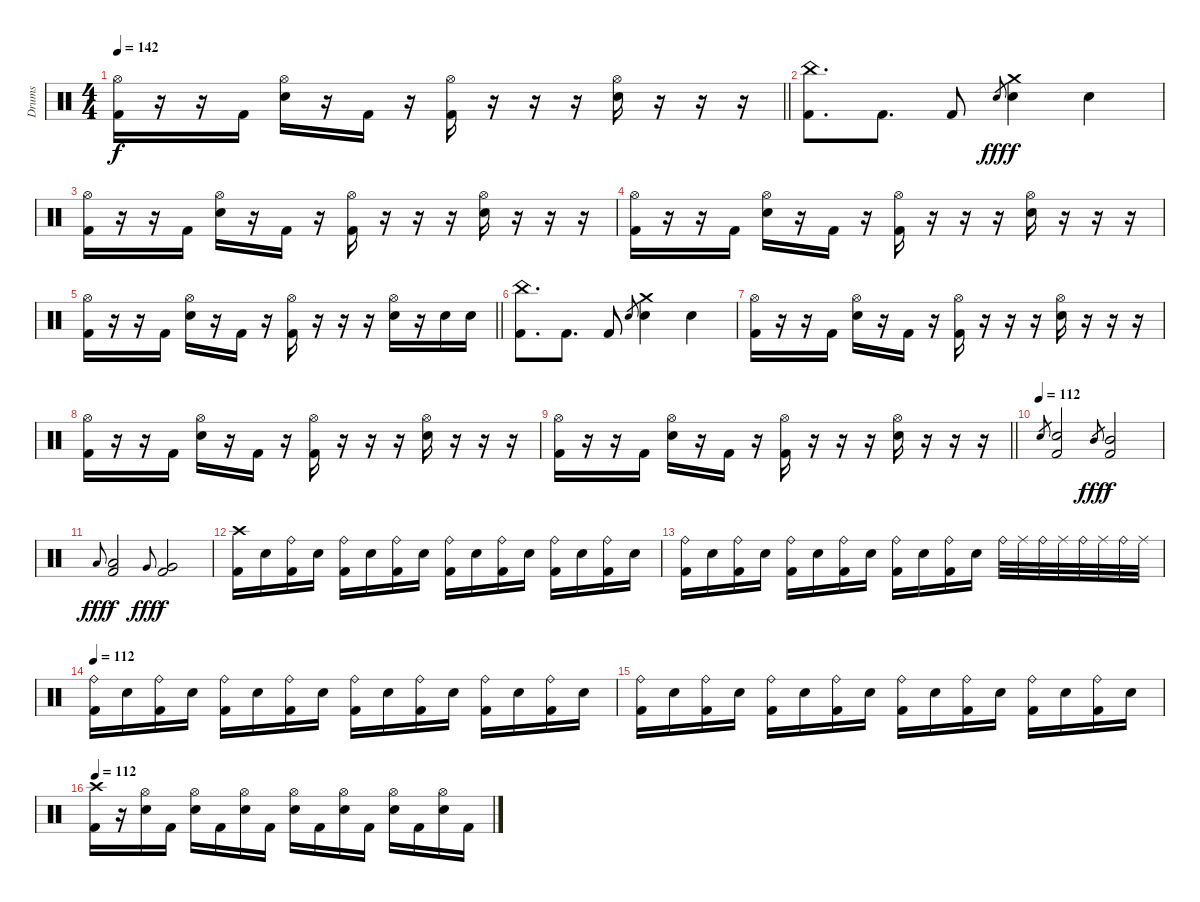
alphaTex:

\track ("Drums" "Drums") {instrument percussion}
\staff
\articulation defaults
\ts (4 4)
\tempo 142
\clef neutral
\barLineRight lightlight
\ks c
("Hi-Hat (open)" "Kick (hit) 2").16{dy f} r.16 r.16 "Kick (hit) 2".16 ("Hi-Hat (open)" "Snare (hit) 2").16 r.16 "Kick (hit) 2".16 r.16 ("Hi-Hat (open)" "Kick (hit) 2").16 r.16 r.16 r.16 ("Hi-Hat (open)" "Snare (hit) 2").16 r.16 r.16 r.16 |
\section ("" "")
("China (hit)" "Kick (hit) 2").8{d} "Kick (hit) 2".8{d} "Kick (hit) 2".8 "Snare (hit) 2"{h}.8{gr dy fff} ("Crash medium (hit)" "Snare (hit) 2").4{dy f} "Snare (hit) 2".4 |
("Hi-Hat (open)" "Kick (hit) 2").16 r.16 r.16 "Kick (hit) 2".16 ("Hi-Hat (open)" "Snare (hit) 2").16 r.16 "Kick (hit) 2".16 r.16 ("Hi-Hat (open)" "Kick (hit) 2").16 r.16 r.16 r.16 ("Hi-Hat (open)" "Snare (hit) 2").16 r.16 r.16 r.16 |
("Hi-Hat (open)" "Kick (hit) 2").16 r.16 r.16 "Kick (hit) 2".16 ("Hi-Hat (open)" "Snare (hit) 2").16 r.16 "Kick (hit) 2".16 r.16 ("Hi-Hat (open)" "Kick (hit) 2").16 r.16 r.16 r.16 ("Hi-Hat (open)" "Snare (hit) 2").16 r.16 r.16 r.16 |
\barLineRight lightlight
("Hi-Hat (open)" "Kick (hit) 2").16 r.16 r.16 "Kick (hit) 2".16 ("Hi-Hat (open)" "Snare (hit) 2").16 r.16 "Kick (hit) 2".16 r.16 ("Hi-Hat (open)" "Kick (hit) 2").16 r.16 r.16 r.16 ("Hi-Hat (open)" "Snare (hit) 2").16 r.16 "Snare (hit) 2".16 "Snare (hit) 2".16 |
("China (hit)" "Kick (hit) 2").8{d} "Kick (hit) 2".8{d} "Kick (hit) 2".8 "Snare (hit) 2"{h}.8{gr} ("Crash medium (hit)" "Snare (hit) 2").4 "Snare (hit) 2".4 |
("Hi-Hat (open)" "Kick (hit) 2").16 r.16 r.16 "Kick (hit) 2".16 ("Hi-Hat (open)" "Snare (hit) 2").16 r.16 "Kick (hit) 2".16 r.16 ("Hi-Hat (open)" "Kick (hit) 2").16 r.16 r.16 r.16 ("Hi-Hat (open)" "Snare (hit) 2").16 r.16 r.16 r.16 |
("Hi-Hat (open)" "Kick (hit) 2").16 r.16 r.16 "Kick (hit) 2".16 ("Hi-Hat (open)" "Snare (hit) 2").16 r.16 "Kick (hit) 2".16 r.16 ("Hi-Hat (open)" "Kick (hit) 2").16 r.16 r.16 r.16 ("Hi-Hat (open)" "Snare (hit) 2").16 r.16 r.16 r.16 |
\barLineRight lightlight
("Hi-Hat (open)" "Kick (hit) 2").16 r.16 r.16 "Kick (hit) 2".16 ("Hi-Hat (open)" "Snare (hit) 2").16 r.16 "Kick (hit) 2".16 r.16 ("Hi-Hat (open)" "Kick (hit) 2").16 r.16 r.16 r.16 ("Hi-Hat (open)" "Snare (hit) 2").16 r.16 r.16 r.16 |
\section ("" "")
\tempo (112)
"Snare (hit) 2".8{gr} ("Snare (hit) 2" "Kick (hit) 2").2 "Mid Tom (hit)".8{gr dy fff} ("Mid Tom (hit)" "Kick (hit) 2").2{dy f} |
"Low Tom (hit)"{h}.8{gr onbeat dy fff} ("Low Tom (hit)" "Kick (hit) 2").2{dy f} "Very Low Tom (hit)"{h}.8{gr onbeat dy fff} ("Very Low Tom (hit)" "Kick (hit) 2").2{dy f} |
("Crash high (hit)" "Kick (hit) 2").16 "Snare (hit) 2".16 ("Ride (bell)" "Kick (hit) 2").16 "Snare (hit) 2".16 ("Ride (bell)" "Kick (hit) 2").16 "Snare (hit) 2".16 ("Ride (bell)" "Kick (hit) 2").16 "Snare (hit) 2".16 ("Ride (bell)" "Kick (hit) 2").16 "Snare (hit) 2".16 ("Ride (bell)" "Kick (hit) 2").16 "Snare (hit) 2".16 ("Ride (bell)" "Kick (hit) 2").16 "Snare (hit) 2".16 ("Ride (bell)" "Kick (hit) 2").16 "Snare (hit) 2".16 |
("Ride (bell)" "Kick (hit) 2").16 "Snare (hit) 2".16 ("Ride (bell)" "Kick (hit) 2").16 "Snare (hit) 2".16 ("Ride (bell)" "Kick (hit) 2").16 "Snare (hit) 2".16 ("Ride (bell)" "Kick (hit) 2").16 "Snare (hit) 2".16 ("Ride (bell)" "Kick (hit) 2").16 "Snare (hit) 2".16 ("Ride (bell)" "Kick (hit) 2").16 "Snare (hit) 2".16 "Ride (bell)".32 "Ride (middle)".32 "Ride (bell)".32 "Ride (middle)".32 "Ride (bell)".32 "Ride (middle)".32 "Ride (bell)".32 "Ride (middle)".32 |
\tempo 112
("Ride (bell)" "Kick (hit) 2").16 "Snare (hit) 2".16 ("Ride (bell)" "Kick (hit) 2").16 "Snare (hit) 2".16 ("Ride (bell)" "Kick (hit) 2").16 "Snare (hit) 2".16 ("Ride (bell)" "Kick (hit) 2").16 "Snare (hit) 2".16 ("Ride (bell)" "Kick (hit) 2").16 "Snare (hit) 2".16 ("Ride (bell)" "Kick (hit) 2").16 "Snare (hit) 2".16 ("Ride (bell)" "Kick (hit) 2").16 "Snare (hit) 2".16 ("Ride (bell)" "Kick (hit) 2").16 "Snare (hit) 2".16 |
("Ride (bell)" "Kick (hit) 2").16 "Snare (hit) 2".16 ("Ride (bell)" "Kick (hit) 2").16 "Snare (hit) 2".16 ("Ride (bell)" "Kick (hit) 2").16 "Snare (hit) 2".16 ("Ride (bell)" "Kick (hit) 2").16 "Snare (hit) 2".16 ("Ride (bell)" "Kick (hit) 2").16 "Snare (hit) 2".16 ("Ride (bell)" "Kick (hit) 2").16 "Snare (hit) 2".16 ("Ride (bell)" "Kick (hit) 2").16 "Snare (hit) 2".16 ("Ride (bell)" "Kick (hit) 2").16 "Snare (hit) 2".16 |
\tempo 112
("Crash high (hit)" "Kick (hit) 2").16 r.16 ("Hi-Hat (open)" "Snare (hit) 2").16 "Kick (hit) 2".16 ("Hi-Hat (open)" "Snare (hit) 2").16 "Kick (hit) 2".16 ("Hi-Hat (open)" "Snare (hit) 2").16 "Kick (hit) 2".16 ("Hi-Hat (open)" "Snare (hit) 2").16 "Kick (hit) 2".16 ("Hi-Hat (open)" "Snare (hit) 2").16 "Kick (hit) 2".16 ("Hi-Hat (open)" "Snare (hit) 2").16 "Kick (hit) 2".16 ("Hi-Hat (open)" "Snare (hit) 2").16 "Kick (hit) 2".16
